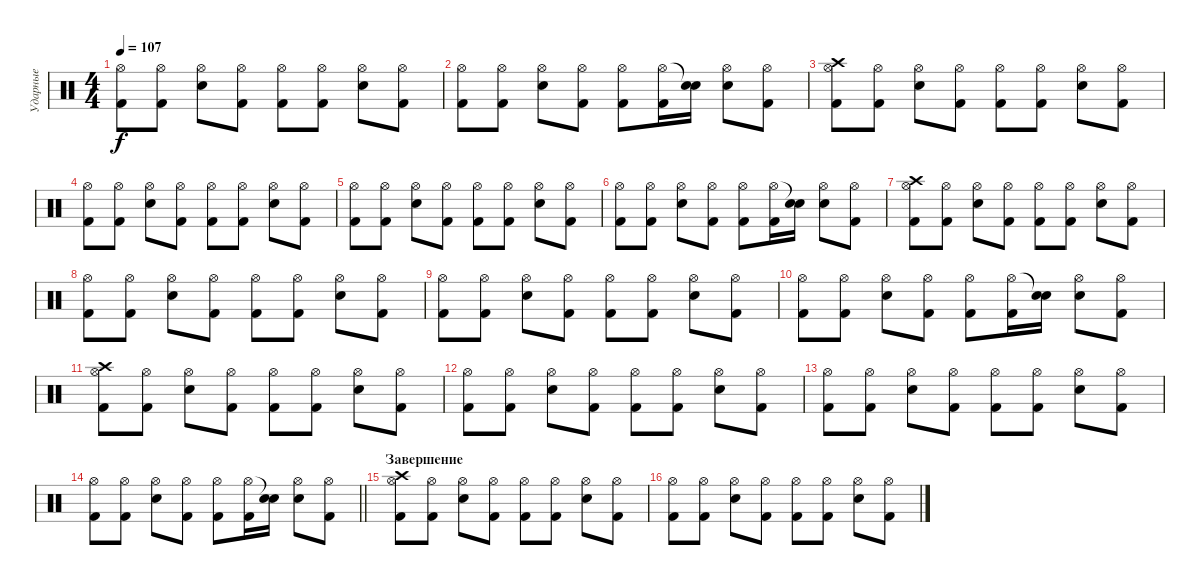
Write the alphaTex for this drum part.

\track ("Ударные" "Ударные") {instrument percussion}
\staff {score}
\articulation defaults
\ts (4 4)
\tempo 107
\clef neutral
\ks c
("Kick (hit) 2" "Hi-Hat (open)").8{dy f} ("Kick (hit) 2" "Hi-Hat (open)").8 ("Snare (hit) 2" "Hi-Hat (open)").8 ("Kick (hit) 2" "Hi-Hat (open)").8 ("Kick (hit) 2" "Hi-Hat (open)").8 ("Kick (hit) 2" "Hi-Hat (open)").8 ("Snare (hit) 2" "Hi-Hat (open)").8 ("Kick (hit) 2" "Hi-Hat (open)").8 |
("Kick (hit) 2" "Hi-Hat (open)").8 ("Kick (hit) 2" "Hi-Hat (open)").8 ("Snare (hit) 2" "Hi-Hat (open)").8 ("Kick (hit) 2" "Hi-Hat (open)").8 ("Kick (hit) 2" "Hi-Hat (open)").8 ("Kick (hit) 2" "Hi-Hat (open)").16 ("Snare (hit) 2" "Snare (hit)"{t}).16 ("Snare (hit) 2" "Hi-Hat (open)").8 ("Kick (hit) 2" "Hi-Hat (open)").8 |
("Kick (hit) 2" "Crash high (hit)" "Hi-Hat (open)").8 ("Kick (hit) 2" "Hi-Hat (open)").8 ("Snare (hit) 2" "Hi-Hat (open)").8 ("Kick (hit) 2" "Hi-Hat (open)").8 ("Kick (hit) 2" "Hi-Hat (open)").8 ("Kick (hit) 2" "Hi-Hat (open)").8 ("Snare (hit) 2" "Hi-Hat (open)").8 ("Kick (hit) 2" "Hi-Hat (open)").8 |
("Kick (hit) 2" "Hi-Hat (open)").8 ("Kick (hit) 2" "Hi-Hat (open)").8 ("Snare (hit) 2" "Hi-Hat (open)").8 ("Kick (hit) 2" "Hi-Hat (open)").8 ("Kick (hit) 2" "Hi-Hat (open)").8 ("Kick (hit) 2" "Hi-Hat (open)").8 ("Snare (hit) 2" "Hi-Hat (open)").8 ("Kick (hit) 2" "Hi-Hat (open)").8 |
("Kick (hit) 2" "Hi-Hat (open)").8 ("Kick (hit) 2" "Hi-Hat (open)").8 ("Snare (hit) 2" "Hi-Hat (open)").8 ("Kick (hit) 2" "Hi-Hat (open)").8 ("Kick (hit) 2" "Hi-Hat (open)").8 ("Kick (hit) 2" "Hi-Hat (open)").8 ("Snare (hit) 2" "Hi-Hat (open)").8 ("Kick (hit) 2" "Hi-Hat (open)").8 |
("Kick (hit) 2" "Hi-Hat (open)").8 ("Kick (hit) 2" "Hi-Hat (open)").8 ("Snare (hit) 2" "Hi-Hat (open)").8 ("Kick (hit) 2" "Hi-Hat (open)").8 ("Kick (hit) 2" "Hi-Hat (open)").8 ("Kick (hit) 2" "Hi-Hat (open)").16 ("Snare (hit) 2" "Snare (hit)"{t}).16 ("Snare (hit) 2" "Hi-Hat (open)").8 ("Kick (hit) 2" "Hi-Hat (open)").8 |
("Kick (hit) 2" "Crash high (hit)" "Hi-Hat (open)").8 ("Kick (hit) 2" "Hi-Hat (open)").8 ("Snare (hit) 2" "Hi-Hat (open)").8 ("Kick (hit) 2" "Hi-Hat (open)").8 ("Kick (hit) 2" "Hi-Hat (open)").8 ("Kick (hit) 2" "Hi-Hat (open)").8 ("Snare (hit) 2" "Hi-Hat (open)").8 ("Kick (hit) 2" "Hi-Hat (open)").8 |
("Kick (hit) 2" "Hi-Hat (open)").8 ("Kick (hit) 2" "Hi-Hat (open)").8 ("Snare (hit) 2" "Hi-Hat (open)").8 ("Kick (hit) 2" "Hi-Hat (open)").8 ("Kick (hit) 2" "Hi-Hat (open)").8 ("Kick (hit) 2" "Hi-Hat (open)").8 ("Snare (hit) 2" "Hi-Hat (open)").8 ("Kick (hit) 2" "Hi-Hat (open)").8 |
("Kick (hit) 2" "Hi-Hat (open)").8 ("Kick (hit) 2" "Hi-Hat (open)").8 ("Snare (hit) 2" "Hi-Hat (open)").8 ("Kick (hit) 2" "Hi-Hat (open)").8 ("Kick (hit) 2" "Hi-Hat (open)").8 ("Kick (hit) 2" "Hi-Hat (open)").8 ("Snare (hit) 2" "Hi-Hat (open)").8 ("Kick (hit) 2" "Hi-Hat (open)").8 |
("Kick (hit) 2" "Hi-Hat (open)").8 ("Kick (hit) 2" "Hi-Hat (open)").8 ("Snare (hit) 2" "Hi-Hat (open)").8 ("Kick (hit) 2" "Hi-Hat (open)").8 ("Kick (hit) 2" "Hi-Hat (open)").8 ("Kick (hit) 2" "Hi-Hat (open)").16 ("Snare (hit) 2" "Snare (hit)"{t}).16 ("Snare (hit) 2" "Hi-Hat (open)").8 ("Kick (hit) 2" "Hi-Hat (open)").8 |
("Kick (hit) 2" "Crash high (hit)" "Hi-Hat (open)").8 ("Kick (hit) 2" "Hi-Hat (open)").8 ("Snare (hit) 2" "Hi-Hat (open)").8 ("Kick (hit) 2" "Hi-Hat (open)").8 ("Kick (hit) 2" "Hi-Hat (open)").8 ("Kick (hit) 2" "Hi-Hat (open)").8 ("Snare (hit) 2" "Hi-Hat (open)").8 ("Kick (hit) 2" "Hi-Hat (open)").8 |
("Kick (hit) 2" "Hi-Hat (open)").8 ("Kick (hit) 2" "Hi-Hat (open)").8 ("Snare (hit) 2" "Hi-Hat (open)").8 ("Kick (hit) 2" "Hi-Hat (open)").8 ("Kick (hit) 2" "Hi-Hat (open)").8 ("Kick (hit) 2" "Hi-Hat (open)").8 ("Snare (hit) 2" "Hi-Hat (open)").8 ("Kick (hit) 2" "Hi-Hat (open)").8 |
("Kick (hit) 2" "Hi-Hat (open)").8 ("Kick (hit) 2" "Hi-Hat (open)").8 ("Snare (hit) 2" "Hi-Hat (open)").8 ("Kick (hit) 2" "Hi-Hat (open)").8 ("Kick (hit) 2" "Hi-Hat (open)").8 ("Kick (hit) 2" "Hi-Hat (open)").8 ("Snare (hit) 2" "Hi-Hat (open)").8 ("Kick (hit) 2" "Hi-Hat (open)").8 |
\barLineRight lightlight
("Kick (hit) 2" "Hi-Hat (open)").8 ("Kick (hit) 2" "Hi-Hat (open)").8 ("Snare (hit) 2" "Hi-Hat (open)").8 ("Kick (hit) 2" "Hi-Hat (open)").8 ("Kick (hit) 2" "Hi-Hat (open)").8 ("Kick (hit) 2" "Hi-Hat (open)").16 ("Snare (hit) 2" "Snare (hit)"{t}).16 ("Snare (hit) 2" "Hi-Hat (open)").8 ("Kick (hit) 2" "Hi-Hat (open)").8 |
\section ("" "Завершение")
("Kick (hit) 2" "Crash high (hit)" "Hi-Hat (open)").8 ("Kick (hit) 2" "Hi-Hat (open)").8 ("Snare (hit) 2" "Hi-Hat (open)").8 ("Kick (hit) 2" "Hi-Hat (open)").8 ("Kick (hit) 2" "Hi-Hat (open)").8 ("Kick (hit) 2" "Hi-Hat (open)").8 ("Snare (hit) 2" "Hi-Hat (open)").8 ("Kick (hit) 2" "Hi-Hat (open)").8 |
("Kick (hit) 2" "Hi-Hat (open)").8 ("Kick (hit) 2" "Hi-Hat (open)").8 ("Snare (hit) 2" "Hi-Hat (open)").8 ("Kick (hit) 2" "Hi-Hat (open)").8 ("Kick (hit) 2" "Hi-Hat (open)").8 ("Kick (hit) 2" "Hi-Hat (open)").8 ("Snare (hit) 2" "Hi-Hat (open)").8 ("Kick (hit) 2" "Hi-Hat (open)").8
